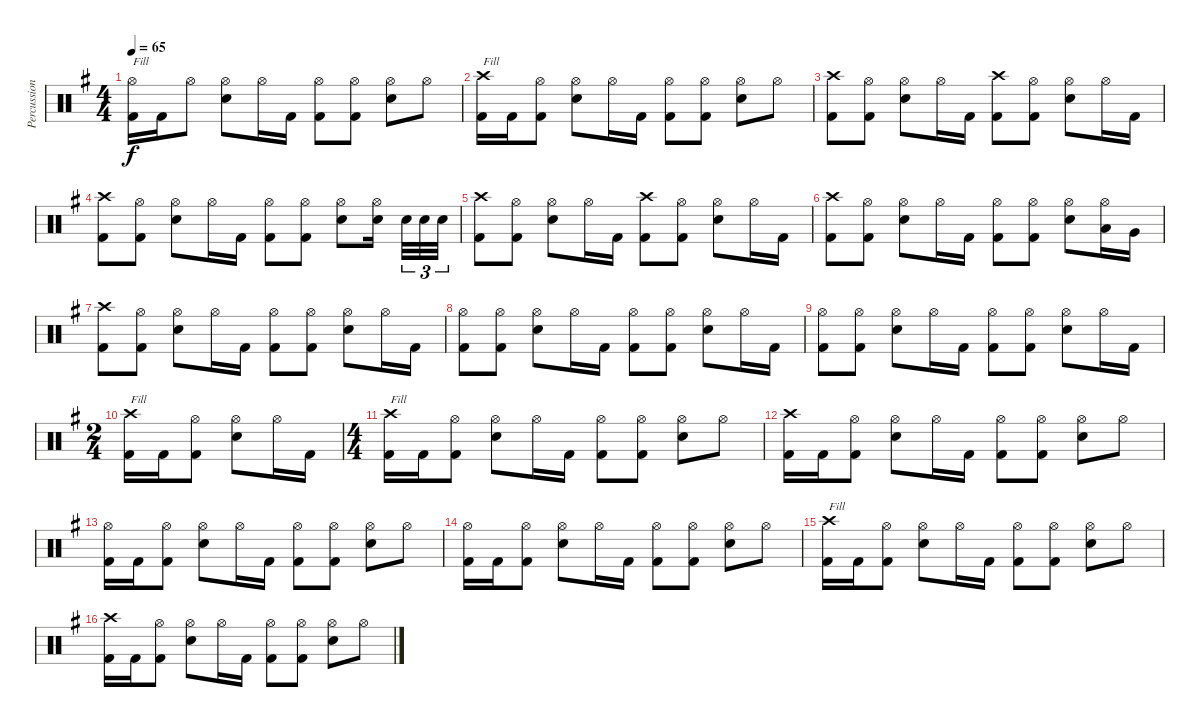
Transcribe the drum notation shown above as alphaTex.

\track ("Percussion" "Percussion") {instrument percussion}
\staff {score}
\articulation defaults
\ts (4 4)
\tempo 65
\clef neutral
\ks eminor
("Hi-Hat (open)" "Kick (hit) 2").16{txt "Fill" dy f} "Kick (hit) 2".16 "Hi-Hat (open)".8 ("Hi-Hat (open)" "Snare (hit) 2").8 "Hi-Hat (open)".16 "Kick (hit) 2".16 ("Hi-Hat (open)" "Kick (hit) 2").8 ("Hi-Hat (open)" "Kick (hit) 2").8 ("Hi-Hat (open)" "Snare (hit) 2").8 "Hi-Hat (open)".8 |
("Crash high (hit)" "Kick (hit) 2").16{txt "Fill"} "Kick (hit) 2".16 ("Hi-Hat (open)" "Kick (hit) 2").8 ("Hi-Hat (open)" "Snare (hit) 2").8 "Hi-Hat (open)".16 "Kick (hit) 2".16 ("Hi-Hat (open)" "Kick (hit) 2").8 ("Hi-Hat (open)" "Kick (hit) 2").8 ("Hi-Hat (open)" "Snare (hit) 2").8 "Hi-Hat (open)".8 |
("Crash high (hit)" "Kick (hit) 2").8 ("Hi-Hat (open)" "Kick (hit) 2").8 ("Hi-Hat (open)" "Snare (hit) 2").8 "Hi-Hat (open)".16 "Kick (hit) 2".16 ("Crash high (hit)" "Kick (hit) 2").8 ("Hi-Hat (open)" "Kick (hit) 2").8 ("Hi-Hat (open)" "Snare (hit) 2").8 "Hi-Hat (open)".16 "Kick (hit) 2".16 |
("Crash high (hit)" "Kick (hit) 2").8 ("Hi-Hat (open)" "Kick (hit) 2").8 ("Hi-Hat (open)" "Snare (hit) 2").8 "Hi-Hat (open)".16 "Kick (hit) 2".16 ("Hi-Hat (open)" "Kick (hit) 2").8 ("Hi-Hat (open)" "Kick (hit) 2").8 ("Hi-Hat (open)" "Snare (hit) 2").8 ("Hi-Hat (open)" "Snare (hit) 2").16 "Snare (hit) 2".32{tu (3 2)} "Snare (hit) 2".32{tu (3 2)} "Snare (hit) 2".32{tu (3 2)} |
("Crash high (hit)" "Kick (hit) 2").8 ("Hi-Hat (open)" "Kick (hit) 2").8 ("Hi-Hat (open)" "Snare (hit) 2").8 "Hi-Hat (open)".16 "Kick (hit) 2".16 ("Crash high (hit)" "Kick (hit) 2").8 ("Hi-Hat (open)" "Kick (hit) 2").8 ("Hi-Hat (open)" "Snare (hit) 2").8 "Hi-Hat (open)".16 "Kick (hit) 2".16 |
("Crash high (hit)" "Kick (hit) 2").8 ("Hi-Hat (open)" "Kick (hit) 2").8 ("Hi-Hat (open)" "Snare (hit) 2").8 "Hi-Hat (open)".16 "Kick (hit) 2".16 ("Hi-Hat (open)" "Kick (hit) 2").8 ("Hi-Hat (open)" "Kick (hit) 2").8 ("Hi-Hat (open)" "Snare (hit) 2").8 ("Hi-Hat (open)" "Low Tom (hit)").16 "Very Low Tom (hit)".16 |
("Crash high (hit)" "Kick (hit) 2").8 ("Hi-Hat (open)" "Kick (hit) 2").8 ("Hi-Hat (open)" "Snare (hit) 2").8 "Hi-Hat (open)".16 "Kick (hit) 2".16 ("Hi-Hat (open)" "Kick (hit) 2").8 ("Hi-Hat (open)" "Kick (hit) 2").8 ("Hi-Hat (open)" "Snare (hit) 2").8 "Hi-Hat (open)".16 "Kick (hit) 2".16 |
("Hi-Hat (open)" "Kick (hit) 2").8 ("Hi-Hat (open)" "Kick (hit) 2").8 ("Hi-Hat (open)" "Snare (hit) 2").8 "Hi-Hat (open)".16 "Kick (hit) 2".16 ("Hi-Hat (open)" "Kick (hit) 2").8 ("Hi-Hat (open)" "Kick (hit) 2").8 ("Hi-Hat (open)" "Snare (hit) 2").8 "Hi-Hat (open)".16 "Kick (hit) 2".16 |
("Hi-Hat (open)" "Kick (hit) 2").8 ("Hi-Hat (open)" "Kick (hit) 2").8 ("Hi-Hat (open)" "Snare (hit) 2").8 "Hi-Hat (open)".16 "Kick (hit) 2".16 ("Hi-Hat (open)" "Kick (hit) 2").8 ("Hi-Hat (open)" "Kick (hit) 2").8 ("Hi-Hat (open)" "Snare (hit) 2").8 "Hi-Hat (open)".16 "Kick (hit) 2".16 |
\ts (2 4)
("Crash high (hit)" "Kick (hit) 2").16{txt "Fill"} "Kick (hit) 2".16 ("Hi-Hat (open)" "Kick (hit) 2").8 ("Hi-Hat (open)" "Snare (hit) 2").8 "Hi-Hat (open)".16 "Kick (hit) 2".16 |
\ts (4 4)
("Crash high (hit)" "Kick (hit) 2").16{txt "Fill"} "Kick (hit) 2".16 ("Hi-Hat (open)" "Kick (hit) 2").8 ("Hi-Hat (open)" "Snare (hit) 2").8 "Hi-Hat (open)".16 "Kick (hit) 2".16 ("Hi-Hat (open)" "Kick (hit) 2").8 ("Hi-Hat (open)" "Kick (hit) 2").8 ("Hi-Hat (open)" "Snare (hit) 2").8 "Hi-Hat (open)".8 |
("Crash high (hit)" "Kick (hit) 2").16 "Kick (hit) 2".16 ("Hi-Hat (open)" "Kick (hit) 2").8 ("Hi-Hat (open)" "Snare (hit) 2").8 "Hi-Hat (open)".16 "Kick (hit) 2".16 ("Hi-Hat (open)" "Kick (hit) 2").8 ("Hi-Hat (open)" "Kick (hit) 2").8 ("Hi-Hat (open)" "Snare (hit) 2").8 "Hi-Hat (open)".8 |
("Hi-Hat (open)" "Kick (hit) 2").16 "Kick (hit) 2".16 ("Hi-Hat (open)" "Kick (hit) 2").8 ("Hi-Hat (open)" "Snare (hit) 2").8 "Hi-Hat (open)".16 "Kick (hit) 2".16 ("Hi-Hat (open)" "Kick (hit) 2").8 ("Hi-Hat (open)" "Kick (hit) 2").8 ("Hi-Hat (open)" "Snare (hit) 2").8 "Hi-Hat (open)".8 |
("Hi-Hat (open)" "Kick (hit) 2").16 "Kick (hit) 2".16 ("Hi-Hat (open)" "Kick (hit) 2").8 ("Hi-Hat (open)" "Snare (hit) 2").8 "Hi-Hat (open)".16 "Kick (hit) 2".16 ("Hi-Hat (open)" "Kick (hit) 2").8 ("Hi-Hat (open)" "Kick (hit) 2").8 ("Hi-Hat (open)" "Snare (hit) 2").8 "Hi-Hat (open)".8 |
("Crash high (hit)" "Kick (hit) 2").16{txt "Fill"} "Kick (hit) 2".16 ("Hi-Hat (open)" "Kick (hit) 2").8 ("Hi-Hat (open)" "Snare (hit) 2").8 "Hi-Hat (open)".16 "Kick (hit) 2".16 ("Hi-Hat (open)" "Kick (hit) 2").8 ("Hi-Hat (open)" "Kick (hit) 2").8 ("Hi-Hat (open)" "Snare (hit) 2").8 "Hi-Hat (open)".8 |
("Crash high (hit)" "Kick (hit) 2").16 "Kick (hit) 2".16 ("Hi-Hat (open)" "Kick (hit) 2").8 ("Hi-Hat (open)" "Snare (hit) 2").8 "Hi-Hat (open)".16 "Kick (hit) 2".16 ("Hi-Hat (open)" "Kick (hit) 2").8 ("Hi-Hat (open)" "Kick (hit) 2").8 ("Hi-Hat (open)" "Snare (hit) 2").8 "Hi-Hat (open)".8
